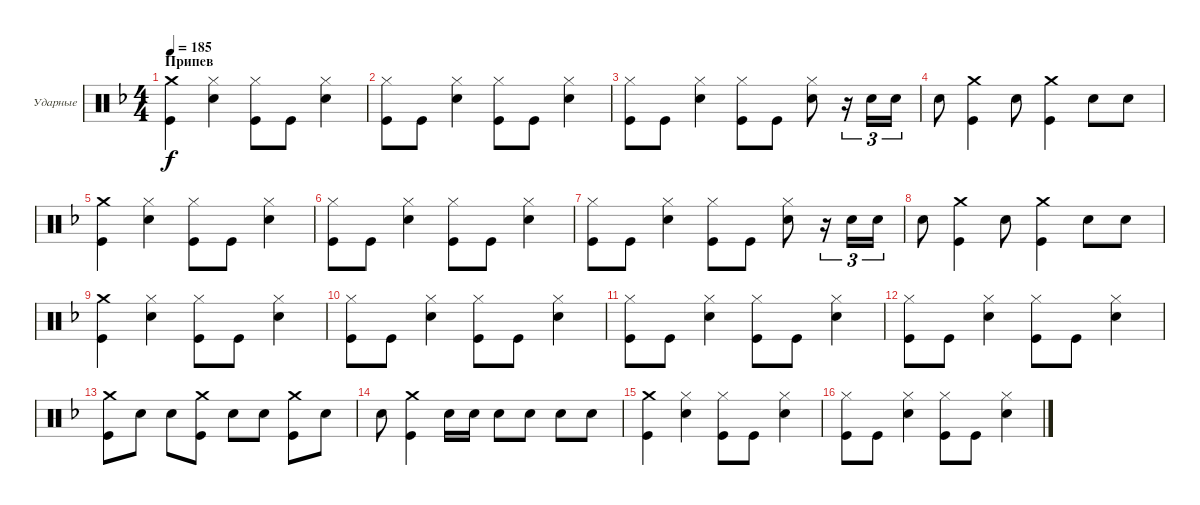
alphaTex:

\bracketExtendMode groupsimilarinstruments
\firstSystemTrackNameOrientation horizontal
\otherSystemsTrackNameOrientation horizontal
\track ("Александр Львов" "Ударные") {instrument percussion}
\staff {score}
\articulation defaults
\ts (4 4)
\section ("" "Припев")
\tempo 185
\clef neutral
\ks dminor
("Kick (hit)" "Crash medium (hit)").4{dy f} ("Snare (hit) 2" "Hi-Hat (closed)").4 ("Kick (hit)" "Hi-Hat (closed)").8 "Kick (hit)".8 ("Hi-Hat (closed)" "Snare (hit) 2").4 |
("Kick (hit)" "Hi-Hat (closed)").8 "Kick (hit)".8 ("Snare (hit) 2" "Hi-Hat (closed)").4 ("Kick (hit)" "Hi-Hat (closed)").8 "Kick (hit)".8 ("Hi-Hat (closed)" "Snare (hit) 2").4 |
("Kick (hit)" "Hi-Hat (closed)").8 "Kick (hit)".8 ("Snare (hit) 2" "Hi-Hat (closed)").4 ("Kick (hit)" "Hi-Hat (closed)").8 "Kick (hit)".8 ("Hi-Hat (closed)" "Snare (hit) 2").8 r.16{tu (3 2)} "Snare (hit) 2".16{tu (3 2)} "Snare (hit) 2".16{tu (3 2)} |
"Snare (hit) 2".8 ("Kick (hit)" "Crash medium (hit)").4 "Snare (hit) 2".8 ("Kick (hit)" "Crash medium (hit)").4 "Snare (hit) 2".8 "Snare (hit) 2".8 |
("Kick (hit)" "Crash medium (hit)").4 ("Snare (hit) 2" "Hi-Hat (closed)").4 ("Kick (hit)" "Hi-Hat (closed)").8 "Kick (hit)".8 ("Hi-Hat (closed)" "Snare (hit) 2").4 |
("Kick (hit)" "Hi-Hat (closed)").8 "Kick (hit)".8 ("Snare (hit) 2" "Hi-Hat (closed)").4 ("Kick (hit)" "Hi-Hat (closed)").8 "Kick (hit)".8 ("Hi-Hat (closed)" "Snare (hit) 2").4 |
("Kick (hit)" "Hi-Hat (closed)").8 "Kick (hit)".8 ("Snare (hit) 2" "Hi-Hat (closed)").4 ("Kick (hit)" "Hi-Hat (closed)").8 "Kick (hit)".8 ("Hi-Hat (closed)" "Snare (hit) 2").8 r.16{tu (3 2)} "Snare (hit) 2".16{tu (3 2)} "Snare (hit) 2".16{tu (3 2)} |
"Snare (hit) 2".8 ("Kick (hit)" "Crash medium (hit)").4 "Snare (hit) 2".8 ("Kick (hit)" "Crash medium (hit)").4 "Snare (hit) 2".8 "Snare (hit) 2".8 |
("Kick (hit)" "Crash medium (hit)").4 ("Snare (hit) 2" "Hi-Hat (closed)").4 ("Kick (hit)" "Hi-Hat (closed)").8 "Kick (hit)".8 ("Hi-Hat (closed)" "Snare (hit) 2").4 |
("Kick (hit)" "Hi-Hat (closed)").8 "Kick (hit)".8 ("Snare (hit) 2" "Hi-Hat (closed)").4 ("Kick (hit)" "Hi-Hat (closed)").8 "Kick (hit)".8 ("Hi-Hat (closed)" "Snare (hit) 2").4 |
("Kick (hit)" "Hi-Hat (closed)").8 "Kick (hit)".8 ("Snare (hit) 2" "Hi-Hat (closed)").4 ("Kick (hit)" "Hi-Hat (closed)").8 "Kick (hit)".8 ("Hi-Hat (closed)" "Snare (hit) 2").4 |
("Kick (hit)" "Hi-Hat (closed)").8 "Kick (hit)".8 ("Snare (hit) 2" "Hi-Hat (closed)").4 ("Kick (hit)" "Hi-Hat (closed)").8 "Kick (hit)".8 ("Hi-Hat (closed)" "Snare (hit) 2").4 |
("Kick (hit)" "Crash medium (hit)").8 "Snare (hit) 2".8 "Snare (hit) 2".8 ("Kick (hit)" "Crash medium (hit)").8 "Snare (hit) 2".8 "Snare (hit) 2".8 ("Kick (hit)" "Crash medium (hit)").8 "Snare (hit) 2".8 |
"Snare (hit) 2".8 ("Kick (hit)" "Crash medium (hit)").4 "Snare (hit) 2".16 "Snare (hit) 2".16 "Snare (hit) 2".8 "Snare (hit) 2".8 "Snare (hit) 2".8 "Snare (hit) 2".8 |
("Kick (hit)" "Crash medium (hit)").4 ("Snare (hit) 2" "Hi-Hat (closed)").4 ("Kick (hit)" "Hi-Hat (closed)").8 "Kick (hit)".8 ("Hi-Hat (closed)" "Snare (hit) 2").4 |
("Kick (hit)" "Hi-Hat (closed)").8 "Kick (hit)".8 ("Snare (hit) 2" "Hi-Hat (closed)").4 ("Kick (hit)" "Hi-Hat (closed)").8 "Kick (hit)".8 ("Hi-Hat (closed)" "Snare (hit) 2").4
